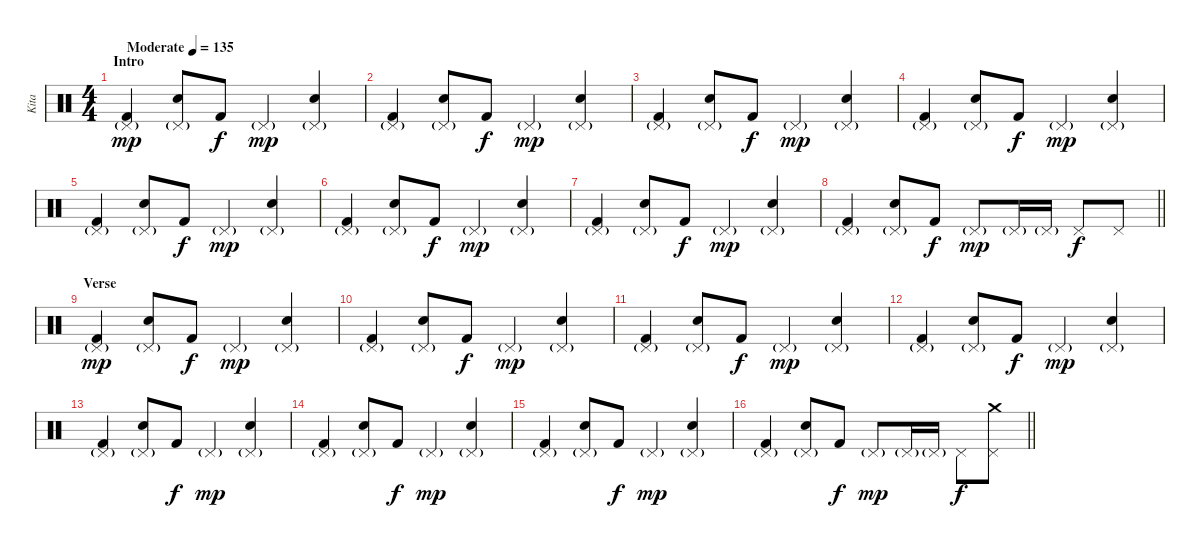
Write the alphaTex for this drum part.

\track ("Kita" "Kita") {instrument percussion}
\staff {score}
\articulation defaults
\ts (4 4)
\section ("" "Intro")
\tempo (135 "Moderate")
\clef neutral
\ks c
("Pedal Hi-Hat (hit)"{g} "Kick (hit) 2").4{dy mp} ("Pedal Hi-Hat (hit)"{g} "Snare (hit) 2").8 "Kick (hit) 2".8{dy f} "Pedal Hi-Hat (hit)"{g}.4{dy mp} ("Pedal Hi-Hat (hit)"{g} "Snare (hit) 2").4 |
("Pedal Hi-Hat (hit)"{g} "Kick (hit) 2").4 ("Pedal Hi-Hat (hit)"{g} "Snare (hit) 2").8 "Kick (hit) 2".8{dy f} "Pedal Hi-Hat (hit)"{g}.4{dy mp} ("Pedal Hi-Hat (hit)"{g} "Snare (hit) 2").4 |
("Pedal Hi-Hat (hit)"{g} "Kick (hit) 2").4 ("Pedal Hi-Hat (hit)"{g} "Snare (hit) 2").8 "Kick (hit) 2".8{dy f} "Pedal Hi-Hat (hit)"{g}.4{dy mp} ("Pedal Hi-Hat (hit)"{g} "Snare (hit) 2").4 |
("Pedal Hi-Hat (hit)"{g} "Kick (hit) 2").4 ("Pedal Hi-Hat (hit)"{g} "Snare (hit) 2").8 "Kick (hit) 2".8{dy f} "Pedal Hi-Hat (hit)"{g}.4{dy mp} ("Pedal Hi-Hat (hit)"{g} "Snare (hit) 2").4 |
("Pedal Hi-Hat (hit)"{g} "Kick (hit) 2").4 ("Pedal Hi-Hat (hit)"{g} "Snare (hit) 2").8 "Kick (hit) 2".8{dy f} "Pedal Hi-Hat (hit)"{g}.4{dy mp} ("Pedal Hi-Hat (hit)"{g} "Snare (hit) 2").4 |
("Pedal Hi-Hat (hit)"{g} "Kick (hit) 2").4 ("Pedal Hi-Hat (hit)"{g} "Snare (hit) 2").8 "Kick (hit) 2".8{dy f} "Pedal Hi-Hat (hit)"{g}.4{dy mp} ("Pedal Hi-Hat (hit)"{g} "Snare (hit) 2").4 |
("Pedal Hi-Hat (hit)"{g} "Kick (hit) 2").4 ("Pedal Hi-Hat (hit)"{g} "Snare (hit) 2").8 "Kick (hit) 2".8{dy f} "Pedal Hi-Hat (hit)"{g}.4{dy mp} ("Pedal Hi-Hat (hit)"{g} "Snare (hit) 2").4 |
\barLineRight lightlight
("Pedal Hi-Hat (hit)"{g} "Kick (hit) 2").4 ("Pedal Hi-Hat (hit)"{g} "Snare (hit) 2").8 "Kick (hit) 2".8{dy f} "Pedal Hi-Hat (hit)"{g}.8{dy mp} "Pedal Hi-Hat (hit)"{g}.16 "Pedal Hi-Hat (hit)"{g}.16 "Pedal Hi-Hat (hit)".8{dy f} "Pedal Hi-Hat (hit)".8 |
\section ("" "Verse")
("Pedal Hi-Hat (hit)"{g} "Kick (hit) 2").4{dy mp} ("Pedal Hi-Hat (hit)"{g} "Snare (hit) 2").8 "Kick (hit) 2".8{dy f} "Pedal Hi-Hat (hit)"{g}.4{dy mp} ("Pedal Hi-Hat (hit)"{g} "Snare (hit) 2").4 |
("Pedal Hi-Hat (hit)"{g} "Kick (hit) 2").4 ("Pedal Hi-Hat (hit)"{g} "Snare (hit) 2").8 "Kick (hit) 2".8{dy f} "Pedal Hi-Hat (hit)"{g}.4{dy mp} ("Pedal Hi-Hat (hit)"{g} "Snare (hit) 2").4 |
("Pedal Hi-Hat (hit)"{g} "Kick (hit) 2").4 ("Pedal Hi-Hat (hit)"{g} "Snare (hit) 2").8 "Kick (hit) 2".8{dy f} "Pedal Hi-Hat (hit)"{g}.4{dy mp} ("Pedal Hi-Hat (hit)"{g} "Snare (hit) 2").4 |
("Pedal Hi-Hat (hit)"{g} "Kick (hit) 2").4 ("Pedal Hi-Hat (hit)"{g} "Snare (hit) 2").8 "Kick (hit) 2".8{dy f} "Pedal Hi-Hat (hit)"{g}.4{dy mp} ("Pedal Hi-Hat (hit)"{g} "Snare (hit) 2").4 |
("Pedal Hi-Hat (hit)"{g} "Kick (hit) 2").4 ("Pedal Hi-Hat (hit)"{g} "Snare (hit) 2").8 "Kick (hit) 2".8{dy f} "Pedal Hi-Hat (hit)"{g}.4{dy mp} ("Pedal Hi-Hat (hit)"{g} "Snare (hit) 2").4 |
("Pedal Hi-Hat (hit)"{g} "Kick (hit) 2").4 ("Pedal Hi-Hat (hit)"{g} "Snare (hit) 2").8 "Kick (hit) 2".8{dy f} "Pedal Hi-Hat (hit)"{g}.4{dy mp} ("Pedal Hi-Hat (hit)"{g} "Snare (hit) 2").4 |
("Pedal Hi-Hat (hit)"{g} "Kick (hit) 2").4 ("Pedal Hi-Hat (hit)"{g} "Snare (hit) 2").8 "Kick (hit) 2".8{dy f} "Pedal Hi-Hat (hit)"{g}.4{dy mp} ("Pedal Hi-Hat (hit)"{g} "Snare (hit) 2").4 |
\barLineRight lightlight
("Pedal Hi-Hat (hit)"{g} "Kick (hit) 2").4 ("Pedal Hi-Hat (hit)"{g} "Snare (hit) 2").8 "Kick (hit) 2".8{dy f} "Pedal Hi-Hat (hit)"{g}.8{dy mp} "Pedal Hi-Hat (hit)"{g}.16 "Pedal Hi-Hat (hit)"{g}.16 "Pedal Hi-Hat (hit)".8{dy f} ("Pedal Hi-Hat (hit)" "Crash medium (hit)").8
